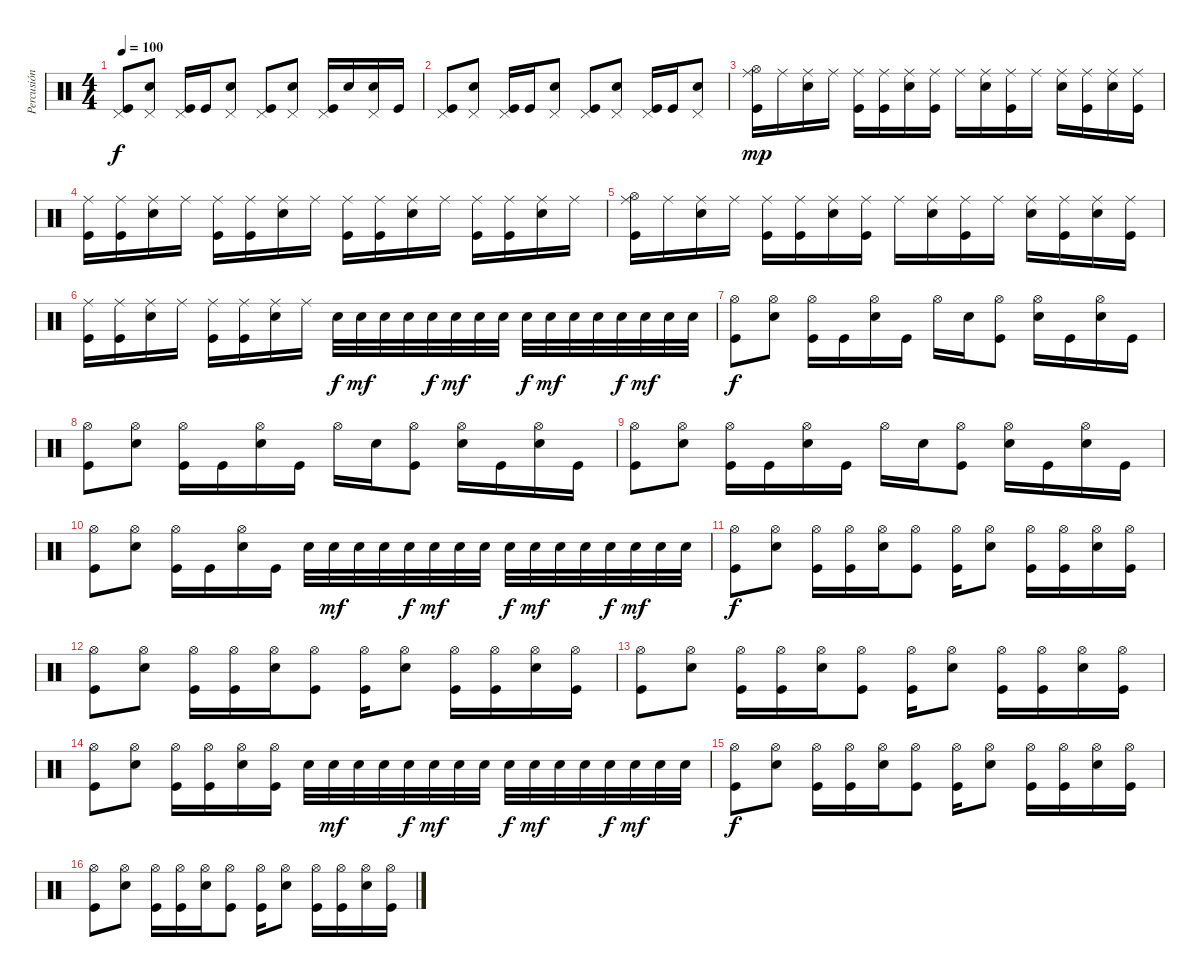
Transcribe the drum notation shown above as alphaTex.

\track ("Percusión" "Percusión") {instrument percussion}
\staff {score}
\articulation defaults
\ts (4 4)
\tempo 100
\clef neutral
\ks c
("Pedal Hi-Hat (hit)" "Kick (hit)").8{dy f} ("Pedal Hi-Hat (hit)" "Snare (hit) 2").8 ("Pedal Hi-Hat (hit)" "Kick (hit)").16 "Kick (hit)".16 ("Pedal Hi-Hat (hit)" "Snare (hit) 2").8 ("Pedal Hi-Hat (hit)" "Kick (hit)").8 ("Pedal Hi-Hat (hit)" "Snare (hit) 2").8 ("Pedal Hi-Hat (hit)" "Kick (hit)").16 "Snare (hit) 2".16 ("Pedal Hi-Hat (hit)" "Snare (hit) 2").16 "Kick (hit)".16 |
("Pedal Hi-Hat (hit)" "Kick (hit)").8 ("Pedal Hi-Hat (hit)" "Snare (hit) 2").8 ("Pedal Hi-Hat (hit)" "Kick (hit)").16 "Kick (hit)".16 ("Pedal Hi-Hat (hit)" "Snare (hit) 2").8 ("Pedal Hi-Hat (hit)" "Kick (hit)").8 ("Pedal Hi-Hat (hit)" "Snare (hit) 2").8 ("Pedal Hi-Hat (hit)" "Kick (hit)").16 "Kick (hit)".16 ("Pedal Hi-Hat (hit)" "Snare (hit) 2").8 |
("Kick (hit)" "Hi-Hat (open)" "Ride (middle)").16{dy mp} "Ride (middle)".16 ("Snare (hit) 2" "Ride (middle)").16 "Ride (middle)".16 ("Kick (hit)" "Ride (middle)").16 ("Kick (hit)" "Ride (middle)").16 ("Snare (hit) 2" "Ride (middle)").16 ("Kick (hit)" "Ride (middle)").16 "Ride (middle)".16 ("Snare (hit) 2" "Ride (middle)").16 ("Kick (hit)" "Ride (middle)").16 "Ride (middle)".16 ("Snare (hit) 2" "Ride (middle)").16 ("Kick (hit)" "Ride (middle)").16 ("Snare (hit) 2" "Ride (middle)").16 ("Kick (hit)" "Ride (middle)").16 |
("Kick (hit)" "Ride (middle)").16 ("Kick (hit)" "Ride (middle)").16 ("Snare (hit) 2" "Ride (middle)").16 "Ride (middle)".16 ("Kick (hit)" "Ride (middle)").16 ("Kick (hit)" "Ride (middle)").16 ("Snare (hit) 2" "Ride (middle)").16 "Ride (middle)".16 ("Kick (hit)" "Ride (middle)").16 ("Kick (hit)" "Ride (middle)").16 ("Snare (hit) 2" "Ride (middle)").16 "Ride (middle)".16 ("Kick (hit)" "Ride (middle)").16 ("Kick (hit)" "Ride (middle)").16 ("Snare (hit) 2" "Ride (middle)").16 "Ride (middle)".16 |
("Kick (hit)" "Hi-Hat (open)" "Ride (middle)").16 "Ride (middle)".16 ("Snare (hit) 2" "Ride (middle)").16 "Ride (middle)".16 ("Kick (hit)" "Ride (middle)").16 ("Kick (hit)" "Ride (middle)").16 ("Snare (hit) 2" "Ride (middle)").16 ("Kick (hit)" "Ride (middle)").16 "Ride (middle)".16 ("Snare (hit) 2" "Ride (middle)").16 ("Kick (hit)" "Ride (middle)").16 "Ride (middle)".16 ("Snare (hit) 2" "Ride (middle)").16 ("Kick (hit)" "Ride (middle)").16 ("Snare (hit) 2" "Ride (middle)").16 ("Kick (hit)" "Ride (middle)").16 |
("Kick (hit)" "Ride (middle)").16 ("Kick (hit)" "Ride (middle)").16 ("Snare (hit) 2" "Ride (middle)").16 "Ride (middle)".16 ("Kick (hit)" "Ride (middle)").16 ("Kick (hit)" "Ride (middle)").16 ("Snare (hit) 2" "Ride (middle)").16 "Ride (middle)".16 "Snare (hit) 2".32{dy f} "Snare (hit) 2".32{dy mf} "Snare (hit) 2".32 "Snare (hit) 2".32 "Snare (hit) 2".32{dy f} "Snare (hit) 2".32{dy mf} "Snare (hit) 2".32 "Snare (hit) 2".32 "Snare (hit) 2".32{dy f} "Snare (hit) 2".32{dy mf} "Snare (hit) 2".32 "Snare (hit) 2".32 "Snare (hit) 2".32{dy f} "Snare (hit) 2".32{dy mf} "Snare (hit) 2".32 "Snare (hit) 2".32 |
("Kick (hit)" "Hi-Hat (open)").8{dy f} ("Snare (hit) 2" "Hi-Hat (open)").8 ("Kick (hit)" "Hi-Hat (open)").16 "Kick (hit)".16 ("Snare (hit) 2" "Hi-Hat (open)").16 "Kick (hit)".16 "Hi-Hat (open)".16 "Snare (hit) 2".16 ("Kick (hit)" "Hi-Hat (open)").8 ("Snare (hit) 2" "Hi-Hat (open)").16 "Kick (hit)".16 ("Snare (hit) 2" "Hi-Hat (open)").16 "Kick (hit)".16 |
("Kick (hit)" "Hi-Hat (open)").8 ("Snare (hit) 2" "Hi-Hat (open)").8 ("Kick (hit)" "Hi-Hat (open)").16 "Kick (hit)".16 ("Snare (hit) 2" "Hi-Hat (open)").16 "Kick (hit)".16 "Hi-Hat (open)".16 "Snare (hit) 2".16 ("Kick (hit)" "Hi-Hat (open)").8 ("Snare (hit) 2" "Hi-Hat (open)").16 "Kick (hit)".16 ("Snare (hit) 2" "Hi-Hat (open)").16 "Kick (hit)".16 |
("Kick (hit)" "Hi-Hat (open)").8 ("Snare (hit) 2" "Hi-Hat (open)").8 ("Kick (hit)" "Hi-Hat (open)").16 "Kick (hit)".16 ("Snare (hit) 2" "Hi-Hat (open)").16 "Kick (hit)".16 "Hi-Hat (open)".16 "Snare (hit) 2".16 ("Kick (hit)" "Hi-Hat (open)").8 ("Snare (hit) 2" "Hi-Hat (open)").16 "Kick (hit)".16 ("Snare (hit) 2" "Hi-Hat (open)").16 "Kick (hit)".16 |
("Kick (hit)" "Hi-Hat (open)").8 ("Snare (hit) 2" "Hi-Hat (open)").8 ("Kick (hit)" "Hi-Hat (open)").16 "Kick (hit)".16 ("Snare (hit) 2" "Hi-Hat (open)").16 "Kick (hit)".16 "Snare (hit) 2".32 "Snare (hit) 2".32{dy mf} "Snare (hit) 2".32 "Snare (hit) 2".32 "Snare (hit) 2".32{dy f} "Snare (hit) 2".32{dy mf} "Snare (hit) 2".32 "Snare (hit) 2".32 "Snare (hit) 2".32{dy f} "Snare (hit) 2".32{dy mf} "Snare (hit) 2".32 "Snare (hit) 2".32 "Snare (hit) 2".32{dy f} "Snare (hit) 2".32{dy mf} "Snare (hit) 2".32 "Snare (hit) 2".32 |
("Kick (hit)" "Hi-Hat (open)").8{dy f} ("Snare (hit) 2" "Hi-Hat (open)").8 ("Kick (hit)" "Hi-Hat (open)").16 ("Kick (hit)" "Hi-Hat (open)").16 ("Snare (hit) 2" "Hi-Hat (open)").16 ("Kick (hit)" "Hi-Hat (open)").8 ("Kick (hit)" "Hi-Hat (open)").16 ("Snare (hit) 2" "Hi-Hat (open)").8 ("Kick (hit)" "Hi-Hat (open)").16 ("Kick (hit)" "Hi-Hat (open)").16 ("Snare (hit) 2" "Hi-Hat (open)").16 ("Kick (hit)" "Hi-Hat (open)").16 |
("Kick (hit)" "Hi-Hat (open)").8 ("Snare (hit) 2" "Hi-Hat (open)").8 ("Kick (hit)" "Hi-Hat (open)").16 ("Kick (hit)" "Hi-Hat (open)").16 ("Snare (hit) 2" "Hi-Hat (open)").16 ("Kick (hit)" "Hi-Hat (open)").8 ("Kick (hit)" "Hi-Hat (open)").16 ("Snare (hit) 2" "Hi-Hat (open)").8 ("Kick (hit)" "Hi-Hat (open)").16 ("Kick (hit)" "Hi-Hat (open)").16 ("Snare (hit) 2" "Hi-Hat (open)").16 ("Kick (hit)" "Hi-Hat (open)").16 |
("Kick (hit)" "Hi-Hat (open)").8 ("Snare (hit) 2" "Hi-Hat (open)").8 ("Kick (hit)" "Hi-Hat (open)").16 ("Kick (hit)" "Hi-Hat (open)").16 ("Snare (hit) 2" "Hi-Hat (open)").16 ("Kick (hit)" "Hi-Hat (open)").8 ("Kick (hit)" "Hi-Hat (open)").16 ("Snare (hit) 2" "Hi-Hat (open)").8 ("Kick (hit)" "Hi-Hat (open)").16 ("Kick (hit)" "Hi-Hat (open)").16 ("Snare (hit) 2" "Hi-Hat (open)").16 ("Kick (hit)" "Hi-Hat (open)").16 |
("Kick (hit)" "Hi-Hat (open)").8 ("Snare (hit) 2" "Hi-Hat (open)").8 ("Kick (hit)" "Hi-Hat (open)").16 ("Kick (hit)" "Hi-Hat (open)").16 ("Snare (hit) 2" "Hi-Hat (open)").16 ("Kick (hit)" "Hi-Hat (open)").16 "Snare (hit) 2".32 "Snare (hit) 2".32{dy mf} "Snare (hit) 2".32 "Snare (hit) 2".32 "Snare (hit) 2".32{dy f} "Snare (hit) 2".32{dy mf} "Snare (hit) 2".32 "Snare (hit) 2".32 "Snare (hit) 2".32{dy f} "Snare (hit) 2".32{dy mf} "Snare (hit) 2".32 "Snare (hit) 2".32 "Snare (hit) 2".32{dy f} "Snare (hit) 2".32{dy mf} "Snare (hit) 2".32 "Snare (hit) 2".32 |
("Kick (hit)" "Hi-Hat (open)").8{dy f} ("Snare (hit) 2" "Hi-Hat (open)").8 ("Kick (hit)" "Hi-Hat (open)").16 ("Kick (hit)" "Hi-Hat (open)").16 ("Snare (hit) 2" "Hi-Hat (open)").16 ("Kick (hit)" "Hi-Hat (open)").8 ("Kick (hit)" "Hi-Hat (open)").16 ("Snare (hit) 2" "Hi-Hat (open)").8 ("Kick (hit)" "Hi-Hat (open)").16 ("Kick (hit)" "Hi-Hat (open)").16 ("Snare (hit) 2" "Hi-Hat (open)").16 ("Kick (hit)" "Hi-Hat (open)").16 |
("Kick (hit)" "Hi-Hat (open)").8 ("Snare (hit) 2" "Hi-Hat (open)").8 ("Kick (hit)" "Hi-Hat (open)").16 ("Kick (hit)" "Hi-Hat (open)").16 ("Snare (hit) 2" "Hi-Hat (open)").16 ("Kick (hit)" "Hi-Hat (open)").8 ("Kick (hit)" "Hi-Hat (open)").16 ("Snare (hit) 2" "Hi-Hat (open)").8 ("Kick (hit)" "Hi-Hat (open)").16 ("Kick (hit)" "Hi-Hat (open)").16 ("Snare (hit) 2" "Hi-Hat (open)").16 ("Kick (hit)" "Hi-Hat (open)").16
